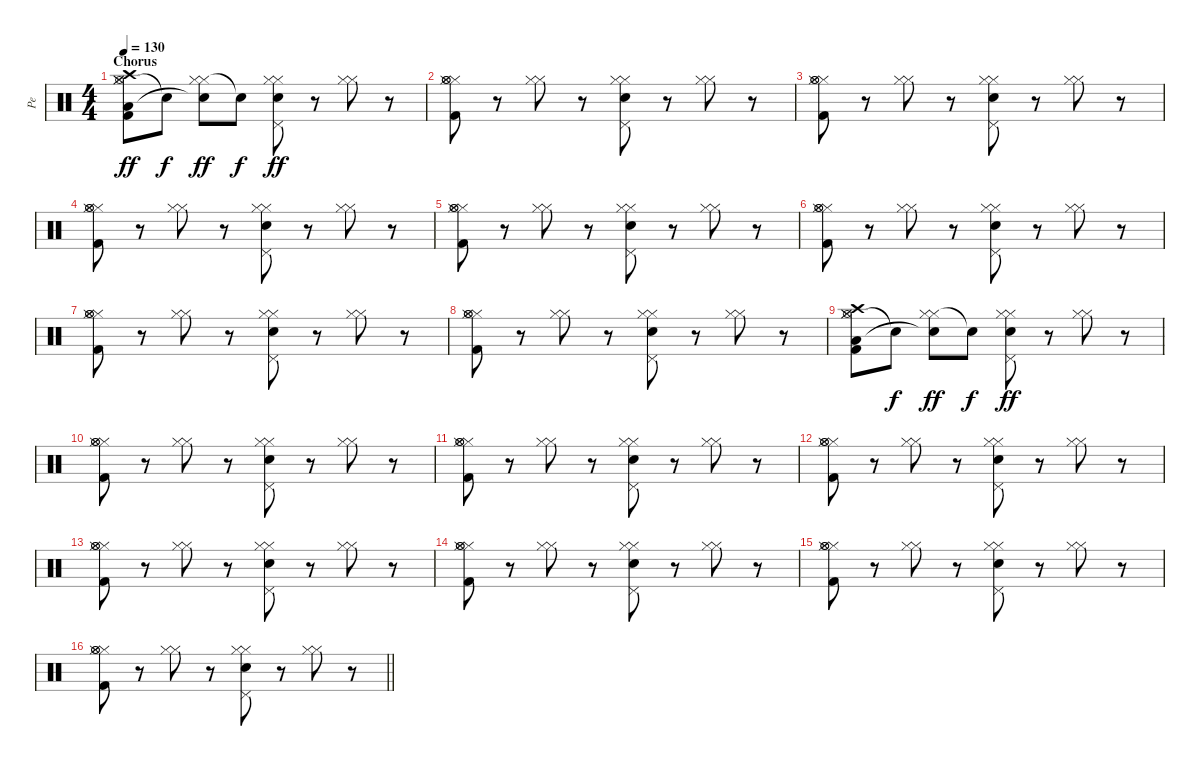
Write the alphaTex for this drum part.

\track ("Pe" "Pe") {instrument percussion}
\staff {score}
\articulation defaults
\ts (4 4)
\section ("" "Chorus")
\tempo 130
\clef neutral
\ks c
("Hi-Hat (closed)" "Hi-Hat (closed)" "Low Floor Tom (hit)" "Hi-Hat (open)" "Crash high (hit)" "Kick (hit) 2").8{dy ff} "Snare (hit)"{t}.8{dy f} ("Hi-Hat (closed)" "Hi-Hat (closed)" "Snare (hit)"{t}).8{dy ff} "Snare (hit)"{t}.8{dy f} ("Hi-Hat (closed)" "Hi-Hat (closed)" "Pedal Hi-Hat (hit)" "Electric Snare (hit)").8{dy ff} r.8 ("Hi-Hat (closed)" "Hi-Hat (closed)").8 r.8 |
("Hi-Hat (closed)" "Hi-Hat (closed)" "Hi-Hat (open)" "Hi-Hat (open)" "Kick (hit) 2").8 r.8 ("Hi-Hat (closed)" "Hi-Hat (closed)").8 r.8 ("Hi-Hat (closed)" "Hi-Hat (closed)" "Pedal Hi-Hat (hit)" "Electric Snare (hit)").8 r.8 ("Hi-Hat (closed)" "Hi-Hat (closed)").8 r.8 |
("Hi-Hat (closed)" "Hi-Hat (closed)" "Hi-Hat (open)" "Hi-Hat (open)" "Kick (hit) 2").8 r.8 ("Hi-Hat (closed)" "Hi-Hat (closed)").8 r.8 ("Hi-Hat (closed)" "Hi-Hat (closed)" "Pedal Hi-Hat (hit)" "Electric Snare (hit)").8 r.8 ("Hi-Hat (closed)" "Hi-Hat (closed)").8 r.8 |
("Hi-Hat (closed)" "Hi-Hat (closed)" "Hi-Hat (open)" "Hi-Hat (open)" "Kick (hit) 2").8 r.8 ("Hi-Hat (closed)" "Hi-Hat (closed)").8 r.8 ("Hi-Hat (closed)" "Hi-Hat (closed)" "Pedal Hi-Hat (hit)" "Electric Snare (hit)").8 r.8 ("Hi-Hat (closed)" "Hi-Hat (closed)").8 r.8 |
("Hi-Hat (closed)" "Hi-Hat (closed)" "Hi-Hat (open)" "Hi-Hat (open)" "Kick (hit) 2").8 r.8 ("Hi-Hat (closed)" "Hi-Hat (closed)").8 r.8 ("Hi-Hat (closed)" "Hi-Hat (closed)" "Pedal Hi-Hat (hit)" "Electric Snare (hit)").8 r.8 ("Hi-Hat (closed)" "Hi-Hat (closed)").8 r.8 |
("Hi-Hat (closed)" "Hi-Hat (closed)" "Hi-Hat (open)" "Hi-Hat (open)" "Kick (hit) 2").8 r.8 ("Hi-Hat (closed)" "Hi-Hat (closed)").8 r.8 ("Hi-Hat (closed)" "Hi-Hat (closed)" "Pedal Hi-Hat (hit)" "Electric Snare (hit)").8 r.8 ("Hi-Hat (closed)" "Hi-Hat (closed)").8 r.8 |
("Hi-Hat (closed)" "Hi-Hat (closed)" "Hi-Hat (open)" "Hi-Hat (open)" "Kick (hit) 2").8 r.8 ("Hi-Hat (closed)" "Hi-Hat (closed)").8 r.8 ("Hi-Hat (closed)" "Hi-Hat (closed)" "Pedal Hi-Hat (hit)" "Electric Snare (hit)").8 r.8 ("Hi-Hat (closed)" "Hi-Hat (closed)").8 r.8 |
("Hi-Hat (closed)" "Hi-Hat (closed)" "Hi-Hat (open)" "Hi-Hat (open)" "Kick (hit) 2").8 r.8 ("Hi-Hat (closed)" "Hi-Hat (closed)").8 r.8 ("Hi-Hat (closed)" "Hi-Hat (closed)" "Pedal Hi-Hat (hit)" "Electric Snare (hit)").8 r.8 ("Hi-Hat (closed)" "Hi-Hat (closed)").8 r.8 |
("Hi-Hat (closed)" "Hi-Hat (closed)" "Low Floor Tom (hit)" "Hi-Hat (open)" "Crash high (hit)" "Kick (hit) 2").8 "Snare (hit)"{t}.8{dy f} ("Hi-Hat (closed)" "Hi-Hat (closed)" "Snare (hit)"{t}).8{dy ff} "Snare (hit)"{t}.8{dy f} ("Hi-Hat (closed)" "Hi-Hat (closed)" "Pedal Hi-Hat (hit)" "Electric Snare (hit)").8{dy ff} r.8 ("Hi-Hat (closed)" "Hi-Hat (closed)").8 r.8 |
("Hi-Hat (closed)" "Hi-Hat (closed)" "Hi-Hat (open)" "Hi-Hat (open)" "Kick (hit) 2").8 r.8 ("Hi-Hat (closed)" "Hi-Hat (closed)").8 r.8 ("Hi-Hat (closed)" "Hi-Hat (closed)" "Pedal Hi-Hat (hit)" "Electric Snare (hit)").8 r.8 ("Hi-Hat (closed)" "Hi-Hat (closed)").8 r.8 |
("Hi-Hat (closed)" "Hi-Hat (closed)" "Hi-Hat (open)" "Hi-Hat (open)" "Kick (hit) 2").8 r.8 ("Hi-Hat (closed)" "Hi-Hat (closed)").8 r.8 ("Hi-Hat (closed)" "Hi-Hat (closed)" "Pedal Hi-Hat (hit)" "Electric Snare (hit)").8 r.8 ("Hi-Hat (closed)" "Hi-Hat (closed)").8 r.8 |
("Hi-Hat (closed)" "Hi-Hat (closed)" "Hi-Hat (open)" "Hi-Hat (open)" "Kick (hit) 2").8 r.8 ("Hi-Hat (closed)" "Hi-Hat (closed)").8 r.8 ("Hi-Hat (closed)" "Hi-Hat (closed)" "Pedal Hi-Hat (hit)" "Electric Snare (hit)").8 r.8 ("Hi-Hat (closed)" "Hi-Hat (closed)").8 r.8 |
("Hi-Hat (closed)" "Hi-Hat (closed)" "Hi-Hat (open)" "Hi-Hat (open)" "Kick (hit) 2").8 r.8 ("Hi-Hat (closed)" "Hi-Hat (closed)").8 r.8 ("Hi-Hat (closed)" "Hi-Hat (closed)" "Pedal Hi-Hat (hit)" "Electric Snare (hit)").8 r.8 ("Hi-Hat (closed)" "Hi-Hat (closed)").8 r.8 |
("Hi-Hat (closed)" "Hi-Hat (closed)" "Hi-Hat (open)" "Hi-Hat (open)" "Kick (hit) 2").8 r.8 ("Hi-Hat (closed)" "Hi-Hat (closed)").8 r.8 ("Hi-Hat (closed)" "Hi-Hat (closed)" "Pedal Hi-Hat (hit)" "Electric Snare (hit)").8 r.8 ("Hi-Hat (closed)" "Hi-Hat (closed)").8 r.8 |
("Hi-Hat (closed)" "Hi-Hat (closed)" "Hi-Hat (open)" "Hi-Hat (open)" "Kick (hit) 2").8 r.8 ("Hi-Hat (closed)" "Hi-Hat (closed)").8 r.8 ("Hi-Hat (closed)" "Hi-Hat (closed)" "Pedal Hi-Hat (hit)" "Electric Snare (hit)").8 r.8 ("Hi-Hat (closed)" "Hi-Hat (closed)").8 r.8 |
\barLineRight lightlight
("Hi-Hat (closed)" "Hi-Hat (closed)" "Hi-Hat (open)" "Hi-Hat (open)" "Kick (hit) 2").8 r.8 ("Hi-Hat (closed)" "Hi-Hat (closed)").8 r.8 ("Hi-Hat (closed)" "Hi-Hat (closed)" "Pedal Hi-Hat (hit)" "Electric Snare (hit)").8 r.8 ("Hi-Hat (closed)" "Hi-Hat (closed)").8 r.8
